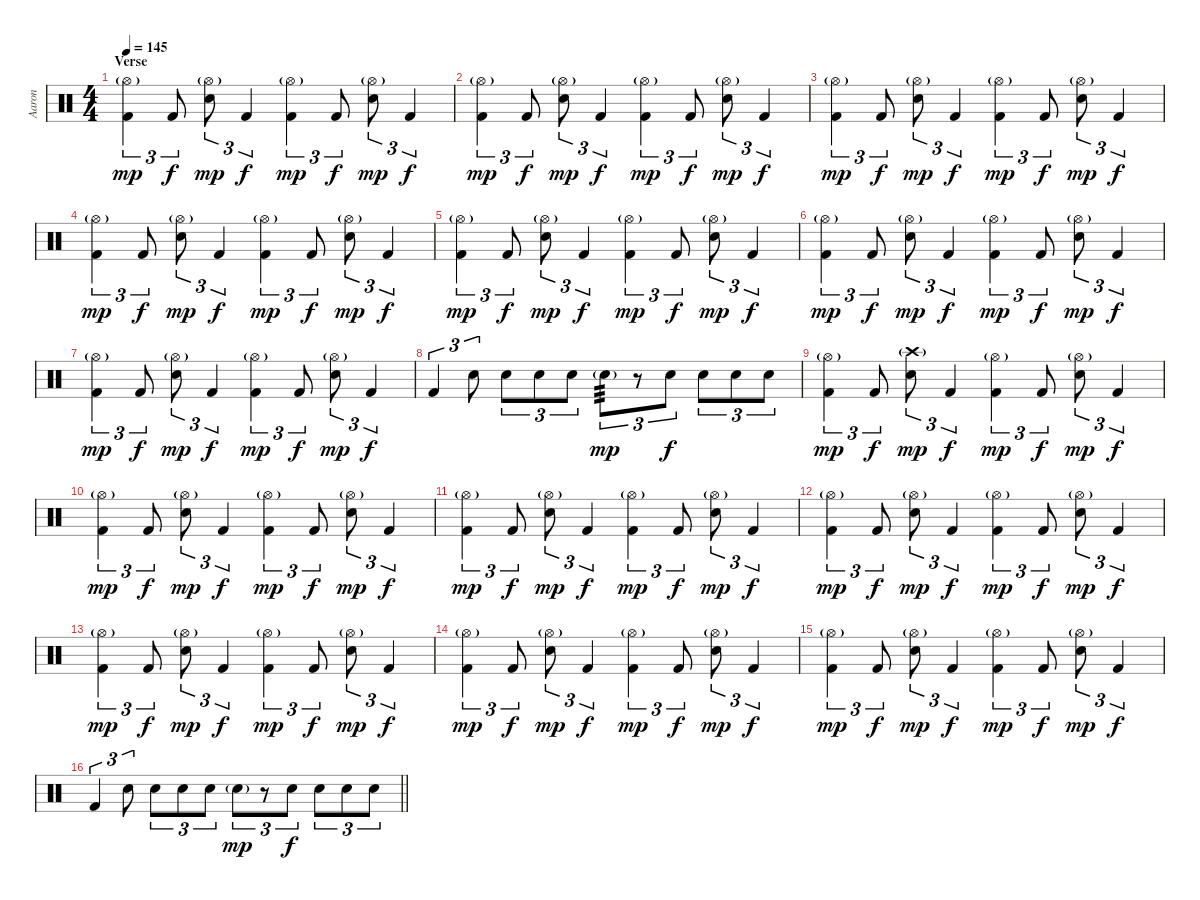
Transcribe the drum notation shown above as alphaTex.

\track ("Aaron" "Aaron") {instrument percussion}
\staff {score}
\articulation defaults
\ts (4 4)
\section ("" "Verse")
\tempo 145
\clef neutral
\ks c
("Hi-Hat (open)"{g} "Kick (hit) 2").4{tu (3 2) dy mp} "Kick (hit) 2".8{tu (3 2) dy f} ("Hi-Hat (open)"{g} "Electric Snare (hit)").8{tu (3 2) dy mp} "Kick (hit) 2".4{tu (3 2) dy f} ("Hi-Hat (open)"{g} "Kick (hit) 2").4{tu (3 2) dy mp} "Kick (hit) 2".8{tu (3 2) dy f} ("Hi-Hat (open)"{g} "Electric Snare (hit)").8{tu (3 2) dy mp} "Kick (hit) 2".4{tu (3 2) dy f} |
("Hi-Hat (open)"{g} "Kick (hit) 2").4{tu (3 2) dy mp} "Kick (hit) 2".8{tu (3 2) dy f} ("Hi-Hat (open)"{g} "Electric Snare (hit)").8{tu (3 2) dy mp} "Kick (hit) 2".4{tu (3 2) dy f} ("Hi-Hat (open)"{g} "Kick (hit) 2").4{tu (3 2) dy mp} "Kick (hit) 2".8{tu (3 2) dy f} ("Hi-Hat (open)"{g} "Electric Snare (hit)").8{tu (3 2) dy mp} "Kick (hit) 2".4{tu (3 2) dy f} |
("Hi-Hat (open)"{g} "Kick (hit) 2").4{tu (3 2) dy mp} "Kick (hit) 2".8{tu (3 2) dy f} ("Hi-Hat (open)"{g} "Electric Snare (hit)").8{tu (3 2) dy mp} "Kick (hit) 2".4{tu (3 2) dy f} ("Hi-Hat (open)"{g} "Kick (hit) 2").4{tu (3 2) dy mp} "Kick (hit) 2".8{tu (3 2) dy f} ("Hi-Hat (open)"{g} "Electric Snare (hit)").8{tu (3 2) dy mp} "Kick (hit) 2".4{tu (3 2) dy f} |
("Hi-Hat (open)"{g} "Kick (hit) 2").4{tu (3 2) dy mp} "Kick (hit) 2".8{tu (3 2) dy f} ("Hi-Hat (open)"{g} "Electric Snare (hit)").8{tu (3 2) dy mp} "Kick (hit) 2".4{tu (3 2) dy f} ("Hi-Hat (open)"{g} "Kick (hit) 2").4{tu (3 2) dy mp} "Kick (hit) 2".8{tu (3 2) dy f} ("Hi-Hat (open)"{g} "Electric Snare (hit)").8{tu (3 2) dy mp} "Kick (hit) 2".4{tu (3 2) dy f} |
("Hi-Hat (open)"{g} "Kick (hit) 2").4{tu (3 2) dy mp} "Kick (hit) 2".8{tu (3 2) dy f} ("Hi-Hat (open)"{g} "Electric Snare (hit)").8{tu (3 2) dy mp} "Kick (hit) 2".4{tu (3 2) dy f} ("Hi-Hat (open)"{g} "Kick (hit) 2").4{tu (3 2) dy mp} "Kick (hit) 2".8{tu (3 2) dy f} ("Hi-Hat (open)"{g} "Electric Snare (hit)").8{tu (3 2) dy mp} "Kick (hit) 2".4{tu (3 2) dy f} |
("Hi-Hat (open)"{g} "Kick (hit) 2").4{tu (3 2) dy mp} "Kick (hit) 2".8{tu (3 2) dy f} ("Hi-Hat (open)"{g} "Electric Snare (hit)").8{tu (3 2) dy mp} "Kick (hit) 2".4{tu (3 2) dy f} ("Hi-Hat (open)"{g} "Kick (hit) 2").4{tu (3 2) dy mp} "Kick (hit) 2".8{tu (3 2) dy f} ("Hi-Hat (open)"{g} "Electric Snare (hit)").8{tu (3 2) dy mp} "Kick (hit) 2".4{tu (3 2) dy f} |
("Hi-Hat (open)"{g} "Kick (hit) 2").4{tu (3 2) dy mp} "Kick (hit) 2".8{tu (3 2) dy f} ("Hi-Hat (open)"{g} "Electric Snare (hit)").8{tu (3 2) dy mp} "Kick (hit) 2".4{tu (3 2) dy f} ("Hi-Hat (open)"{g} "Kick (hit) 2").4{tu (3 2) dy mp} "Kick (hit) 2".8{tu (3 2) dy f} ("Hi-Hat (open)"{g} "Electric Snare (hit)").8{tu (3 2) dy mp} "Kick (hit) 2".4{tu (3 2) dy f} |
"Kick (hit) 2".4{tu (3 2)} "Electric Snare (hit)".8{tu (3 2)} "Electric Snare (hit)".8{tu (3 2)} "Electric Snare (hit)".8{tu (3 2)} "Electric Snare (hit)".8{tu (3 2)} "Electric Snare (hit)"{g}.8{tu (3 2) tp 3 dy mp} r.8{tu (3 2)} "Electric Snare (hit)".8{tu (3 2) dy f} "Electric Snare (hit)".8{tu (3 2)} "Electric Snare (hit)".8{tu (3 2)} "Electric Snare (hit)".8{tu (3 2)} |
("Hi-Hat (open)"{g} "Kick (hit) 2").4{tu (3 2) dy mp} "Kick (hit) 2".8{tu (3 2) dy f} ("Crash high (hit)"{g} "Electric Snare (hit)").8{tu (3 2) dy mp} "Kick (hit) 2".4{tu (3 2) dy f} ("Hi-Hat (open)"{g} "Kick (hit) 2").4{tu (3 2) dy mp} "Kick (hit) 2".8{tu (3 2) dy f} ("Hi-Hat (open)"{g} "Electric Snare (hit)").8{tu (3 2) dy mp} "Kick (hit) 2".4{tu (3 2) dy f} |
("Hi-Hat (open)"{g} "Kick (hit) 2").4{tu (3 2) dy mp} "Kick (hit) 2".8{tu (3 2) dy f} ("Hi-Hat (open)"{g} "Electric Snare (hit)").8{tu (3 2) dy mp} "Kick (hit) 2".4{tu (3 2) dy f} ("Hi-Hat (open)"{g} "Kick (hit) 2").4{tu (3 2) dy mp} "Kick (hit) 2".8{tu (3 2) dy f} ("Hi-Hat (open)"{g} "Electric Snare (hit)").8{tu (3 2) dy mp} "Kick (hit) 2".4{tu (3 2) dy f} |
("Hi-Hat (open)"{g} "Kick (hit) 2").4{tu (3 2) dy mp} "Kick (hit) 2".8{tu (3 2) dy f} ("Hi-Hat (open)"{g} "Electric Snare (hit)").8{tu (3 2) dy mp} "Kick (hit) 2".4{tu (3 2) dy f} ("Hi-Hat (open)"{g} "Kick (hit) 2").4{tu (3 2) dy mp} "Kick (hit) 2".8{tu (3 2) dy f} ("Hi-Hat (open)"{g} "Electric Snare (hit)").8{tu (3 2) dy mp} "Kick (hit) 2".4{tu (3 2) dy f} |
("Hi-Hat (open)"{g} "Kick (hit) 2").4{tu (3 2) dy mp} "Kick (hit) 2".8{tu (3 2) dy f} ("Hi-Hat (open)"{g} "Electric Snare (hit)").8{tu (3 2) dy mp} "Kick (hit) 2".4{tu (3 2) dy f} ("Hi-Hat (open)"{g} "Kick (hit) 2").4{tu (3 2) dy mp} "Kick (hit) 2".8{tu (3 2) dy f} ("Hi-Hat (open)"{g} "Electric Snare (hit)").8{tu (3 2) dy mp} "Kick (hit) 2".4{tu (3 2) dy f} |
("Hi-Hat (open)"{g} "Kick (hit) 2").4{tu (3 2) dy mp} "Kick (hit) 2".8{tu (3 2) dy f} ("Hi-Hat (open)"{g} "Electric Snare (hit)").8{tu (3 2) dy mp} "Kick (hit) 2".4{tu (3 2) dy f} ("Hi-Hat (open)"{g} "Kick (hit) 2").4{tu (3 2) dy mp} "Kick (hit) 2".8{tu (3 2) dy f} ("Hi-Hat (open)"{g} "Electric Snare (hit)").8{tu (3 2) dy mp} "Kick (hit) 2".4{tu (3 2) dy f} |
("Hi-Hat (open)"{g} "Kick (hit) 2").4{tu (3 2) dy mp} "Kick (hit) 2".8{tu (3 2) dy f} ("Hi-Hat (open)"{g} "Electric Snare (hit)").8{tu (3 2) dy mp} "Kick (hit) 2".4{tu (3 2) dy f} ("Hi-Hat (open)"{g} "Kick (hit) 2").4{tu (3 2) dy mp} "Kick (hit) 2".8{tu (3 2) dy f} ("Hi-Hat (open)"{g} "Electric Snare (hit)").8{tu (3 2) dy mp} "Kick (hit) 2".4{tu (3 2) dy f} |
("Hi-Hat (open)"{g} "Kick (hit) 2").4{tu (3 2) dy mp} "Kick (hit) 2".8{tu (3 2) dy f} ("Hi-Hat (open)"{g} "Electric Snare (hit)").8{tu (3 2) dy mp} "Kick (hit) 2".4{tu (3 2) dy f} ("Hi-Hat (open)"{g} "Kick (hit) 2").4{tu (3 2) dy mp} "Kick (hit) 2".8{tu (3 2) dy f} ("Hi-Hat (open)"{g} "Electric Snare (hit)").8{tu (3 2) dy mp} "Kick (hit) 2".4{tu (3 2) dy f} |
\barLineRight lightlight "Kick (hit) 2".4{tu (3 2)} "Electric Snare (hit)".8{tu (3 2)} "Electric Snare (hit)".8{tu (3 2)} "Electric Snare (hit)".8{tu (3 2)} "Electric Snare (hit)".8{tu (3 2)} "Electric Snare (hit)"{g}.8{tu (3 2) dy mp}
r.8{tu (3 2)} "Electric Snare (hit)".8{tu (3 2) dy f} "Electric Snare (hit)".8{tu (3 2)} "Electric Snare (hit)".8{tu (3 2)} "Electric Snare (hit)".8{tu (3 2)}
